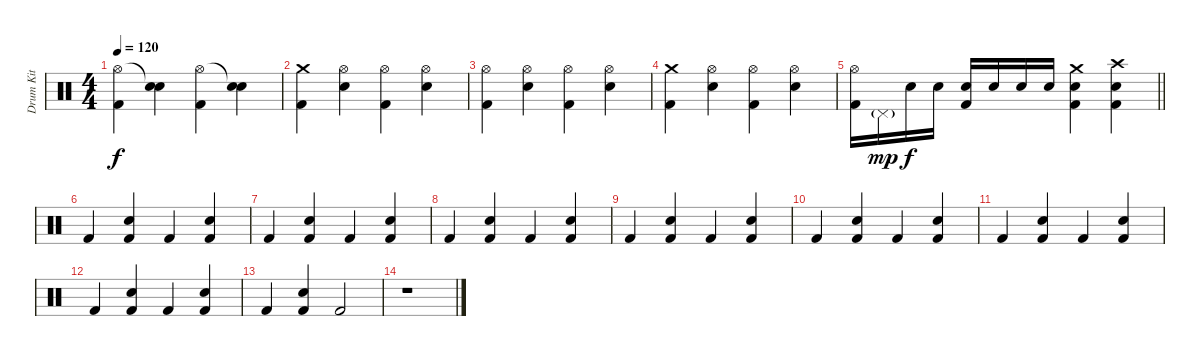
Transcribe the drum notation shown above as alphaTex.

\track ("Drum Kit" "Drum Kit") {instrument percussion}
\staff {score}
\articulation defaults
\ts (4 4)
\tempo 120
\clef neutral
\ks c
("Hi-Hat (open)" "Kick (hit) 2").4{dy f} ("Snare (hit)"{t} "Electric Snare (hit)").4 ("Hi-Hat (open)" "Kick (hit) 2").4 ("Snare (hit)"{t} "Electric Snare (hit)").4 |
("Crash medium (hit)" "Kick (hit) 2").4 ("Hi-Hat (open)" "Electric Snare (hit)").4 ("Hi-Hat (open)" "Kick (hit) 2").4 ("Hi-Hat (open)" "Electric Snare (hit)").4 |
("Hi-Hat (open)" "Kick (hit) 2").4 ("Hi-Hat (open)" "Electric Snare (hit)").4 ("Hi-Hat (open)" "Kick (hit) 2").4 ("Hi-Hat (open)" "Electric Snare (hit)").4 |
("Crash medium (hit)" "Kick (hit) 2").4 ("Hi-Hat (open)" "Electric Snare (hit)").4 ("Hi-Hat (open)" "Kick (hit) 2").4 ("Hi-Hat (open)" "Electric Snare (hit)").4 |
\barLineRight lightlight
("Hi-Hat (open)" "Kick (hit) 2").16 "Pedal Hi-Hat (hit)"{g}.16{dy mp} "Electric Snare (hit)".16{dy f} "Electric Snare (hit)".16 ("Electric Snare (hit)" "Kick (hit) 2").16 "Electric Snare (hit)".16 "Electric Snare (hit)".16 "Electric Snare (hit)".16 ("Crash medium (hit)" "Electric Snare (hit)" "Kick (hit) 2").4 ("Crash high (hit)" "Electric Snare (hit)" "Kick (hit) 2").4 |
"Kick (hit) 2".4 ("Electric Snare (hit)" "Kick (hit) 2").4 "Kick (hit) 2".4 ("Electric Snare (hit)" "Kick (hit) 2").4 |
"Kick (hit) 2".4 ("Electric Snare (hit)" "Kick (hit) 2").4 "Kick (hit) 2".4 ("Electric Snare (hit)" "Kick (hit) 2").4 |
"Kick (hit) 2".4 ("Electric Snare (hit)" "Kick (hit) 2").4 "Kick (hit) 2".4 ("Electric Snare (hit)" "Kick (hit) 2").4 |
"Kick (hit) 2".4 ("Electric Snare (hit)" "Kick (hit) 2").4 "Kick (hit) 2".4 ("Electric Snare (hit)" "Kick (hit) 2").4 |
"Kick (hit) 2".4 ("Electric Snare (hit)" "Kick (hit) 2").4 "Kick (hit) 2".4 ("Electric Snare (hit)" "Kick (hit) 2").4 |
"Kick (hit) 2".4 ("Electric Snare (hit)" "Kick (hit) 2").4 "Kick (hit) 2".4 ("Electric Snare (hit)" "Kick (hit) 2").4 |
"Kick (hit) 2".4 ("Electric Snare (hit)" "Kick (hit) 2").4 "Kick (hit) 2".4 ("Electric Snare (hit)" "Kick (hit) 2").4 |
"Kick (hit) 2".4 ("Electric Snare (hit)" "Kick (hit) 2").4 "Kick (hit) 2".2 |
r.1
